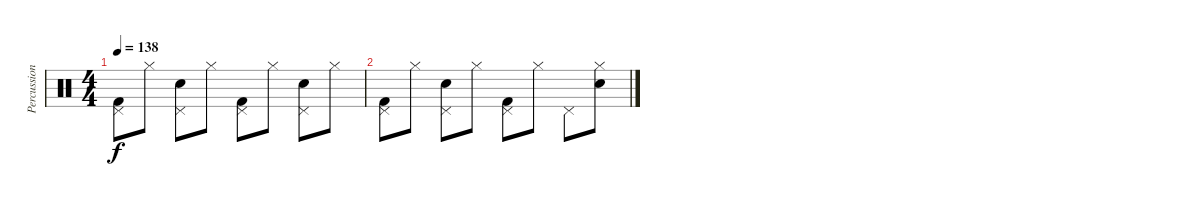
\track ("Percussions" "Percussion") {instrument percussion}
\staff {score}
\articulation defaults
\ts (4 4)
\tempo 138
\clef neutral
\ks c
("Pedal Hi-Hat (hit)" "Kick (hit) 2").8{dy f} "Hi-Hat (closed)".8 ("Pedal Hi-Hat (hit)" "Snare (hit) 2").8 "Hi-Hat (closed)".8 ("Pedal Hi-Hat (hit)" "Kick (hit) 2").8 "Hi-Hat (closed)".8 ("Pedal Hi-Hat (hit)" "Snare (hit) 2").8 "Hi-Hat (closed)".8 |
("Pedal Hi-Hat (hit)" "Kick (hit) 2").8 "Hi-Hat (closed)".8 ("Pedal Hi-Hat (hit)" "Snare (hit) 2").8 "Hi-Hat (closed)".8 ("Pedal Hi-Hat (hit)" "Kick (hit) 2").8 "Hi-Hat (closed)".8 "Pedal Hi-Hat (hit)".8 ("Hi-Hat (closed)" "Snare (hit) 2").8
